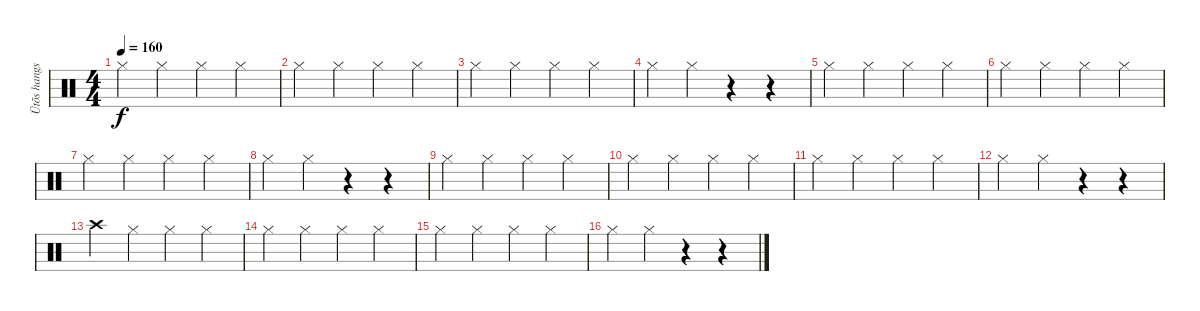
\track ("Ütõs hangszer" "Ütõs hangs") {instrument percussion}
\staff {score}
\articulation defaults
\ts (4 4)
\tempo 160
\clef neutral
\ks c "Hi-Hat (closed)".4{dy f} "Hi-Hat (closed)".4 "Hi-Hat (closed)".4 "Hi-Hat (closed)".4
|
"Hi-Hat (closed)".4 "Hi-Hat (closed)".4 "Hi-Hat (closed)".4 "Hi-Hat (closed)".4 |
"Hi-Hat (closed)".4 "Hi-Hat (closed)".4 "Hi-Hat (closed)".4 "Hi-Hat (closed)".4 |
"Hi-Hat (closed)".4 "Hi-Hat (closed)".4 r.4 r.4 |
"Hi-Hat (closed)".4 "Hi-Hat (closed)".4 "Hi-Hat (closed)".4 "Hi-Hat (closed)".4 |
"Hi-Hat (closed)".4 "Hi-Hat (closed)".4 "Hi-Hat (closed)".4 "Hi-Hat (closed)".4 |
"Hi-Hat (closed)".4 "Hi-Hat (closed)".4 "Hi-Hat (closed)".4 "Hi-Hat (closed)".4 |
"Hi-Hat (closed)".4 "Hi-Hat (closed)".4 r.4 r.4 |
"Hi-Hat (closed)".4 "Hi-Hat (closed)".4 "Hi-Hat (closed)".4 "Hi-Hat (closed)".4 |
"Hi-Hat (closed)".4 "Hi-Hat (closed)".4 "Hi-Hat (closed)".4 "Hi-Hat (closed)".4 |
"Hi-Hat (closed)".4 "Hi-Hat (closed)".4 "Hi-Hat (closed)".4 "Hi-Hat (closed)".4 |
"Hi-Hat (closed)".4 "Hi-Hat (closed)".4 r.4 r.4 |
"Crash high (hit)".4 "Hi-Hat (closed)".4 "Hi-Hat (closed)".4 "Hi-Hat (closed)".4 |
"Hi-Hat (closed)".4 "Hi-Hat (closed)".4 "Hi-Hat (closed)".4 "Hi-Hat (closed)".4 |
"Hi-Hat (closed)".4 "Hi-Hat (closed)".4 "Hi-Hat (closed)".4 "Hi-Hat (closed)".4 |
"Hi-Hat (closed)".4 "Hi-Hat (closed)".4 r.4 r.4
